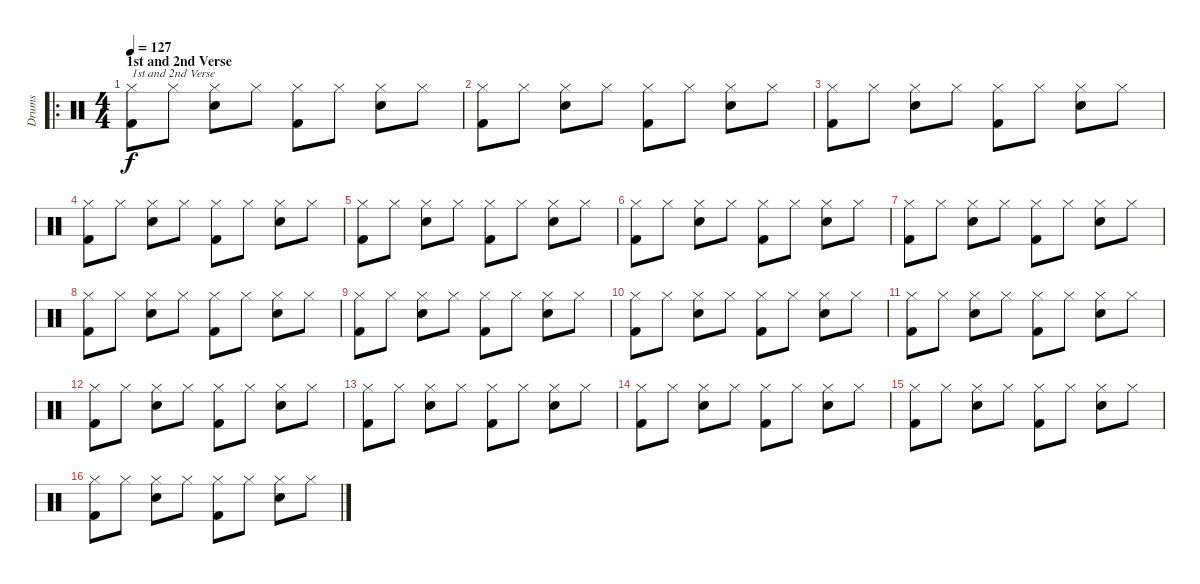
\track ("Drums" "Drums") {instrument percussion}
\staff {score}
\articulation defaults
\ro
\ts (4 4)
\section ("" "1st and 2nd Verse")
\tempo 127
\clef neutral
\ks c
("Hi-Hat (closed)" "Kick (hit) 2").8{txt "1st and 2nd Verse" dy f} "Hi-Hat (closed)".8 ("Hi-Hat (closed)" "Snare (hit) 2").8 "Hi-Hat (closed)".8 ("Hi-Hat (closed)" "Kick (hit) 2").8 "Hi-Hat (closed)".8 ("Hi-Hat (closed)" "Snare (hit) 2").8 "Hi-Hat (closed)".8 |
("Hi-Hat (closed)" "Kick (hit) 2").8 "Hi-Hat (closed)".8 ("Hi-Hat (closed)" "Snare (hit) 2").8 "Hi-Hat (closed)".8 ("Hi-Hat (closed)" "Kick (hit) 2").8 "Hi-Hat (closed)".8 ("Hi-Hat (closed)" "Snare (hit) 2").8 "Hi-Hat (closed)".8 |
("Hi-Hat (closed)" "Kick (hit) 2").8 "Hi-Hat (closed)".8 ("Hi-Hat (closed)" "Snare (hit) 2").8 "Hi-Hat (closed)".8 ("Hi-Hat (closed)" "Kick (hit) 2").8 "Hi-Hat (closed)".8 ("Hi-Hat (closed)" "Snare (hit) 2").8 "Hi-Hat (closed)".8 |
("Hi-Hat (closed)" "Kick (hit) 2").8 "Hi-Hat (closed)".8 ("Hi-Hat (closed)" "Snare (hit) 2").8 "Hi-Hat (closed)".8 ("Hi-Hat (closed)" "Kick (hit) 2").8 "Hi-Hat (closed)".8 ("Hi-Hat (closed)" "Snare (hit) 2").8 "Hi-Hat (closed)".8 |
("Hi-Hat (closed)" "Kick (hit) 2").8 "Hi-Hat (closed)".8 ("Hi-Hat (closed)" "Snare (hit) 2").8 "Hi-Hat (closed)".8 ("Hi-Hat (closed)" "Kick (hit) 2").8 "Hi-Hat (closed)".8 ("Hi-Hat (closed)" "Snare (hit) 2").8 "Hi-Hat (closed)".8 |
("Hi-Hat (closed)" "Kick (hit) 2").8 "Hi-Hat (closed)".8 ("Hi-Hat (closed)" "Snare (hit) 2").8 "Hi-Hat (closed)".8 ("Hi-Hat (closed)" "Kick (hit) 2").8 "Hi-Hat (closed)".8 ("Hi-Hat (closed)" "Snare (hit) 2").8 "Hi-Hat (closed)".8 |
("Hi-Hat (closed)" "Kick (hit) 2").8 "Hi-Hat (closed)".8 ("Hi-Hat (closed)" "Snare (hit) 2").8 "Hi-Hat (closed)".8 ("Hi-Hat (closed)" "Kick (hit) 2").8 "Hi-Hat (closed)".8 ("Hi-Hat (closed)" "Snare (hit) 2").8 "Hi-Hat (closed)".8 |
("Hi-Hat (closed)" "Kick (hit) 2").8 "Hi-Hat (closed)".8 ("Hi-Hat (closed)" "Snare (hit) 2").8 "Hi-Hat (closed)".8 ("Hi-Hat (closed)" "Kick (hit) 2").8 "Hi-Hat (closed)".8 ("Hi-Hat (closed)" "Snare (hit) 2").8 "Hi-Hat (closed)".8 |
("Hi-Hat (closed)" "Kick (hit) 2").8 "Hi-Hat (closed)".8 ("Hi-Hat (closed)" "Snare (hit) 2").8 "Hi-Hat (closed)".8 ("Hi-Hat (closed)" "Kick (hit) 2").8 "Hi-Hat (closed)".8 ("Hi-Hat (closed)" "Snare (hit) 2").8 "Hi-Hat (closed)".8 |
("Hi-Hat (closed)" "Kick (hit) 2").8 "Hi-Hat (closed)".8 ("Hi-Hat (closed)" "Snare (hit) 2").8 "Hi-Hat (closed)".8 ("Hi-Hat (closed)" "Kick (hit) 2").8 "Hi-Hat (closed)".8 ("Hi-Hat (closed)" "Snare (hit) 2").8 "Hi-Hat (closed)".8 |
("Hi-Hat (closed)" "Kick (hit) 2").8 "Hi-Hat (closed)".8 ("Hi-Hat (closed)" "Snare (hit) 2").8 "Hi-Hat (closed)".8 ("Hi-Hat (closed)" "Kick (hit) 2").8 "Hi-Hat (closed)".8 ("Hi-Hat (closed)" "Snare (hit) 2").8 "Hi-Hat (closed)".8 |
("Hi-Hat (closed)" "Kick (hit) 2").8 "Hi-Hat (closed)".8 ("Hi-Hat (closed)" "Snare (hit) 2").8 "Hi-Hat (closed)".8 ("Hi-Hat (closed)" "Kick (hit) 2").8 "Hi-Hat (closed)".8 ("Hi-Hat (closed)" "Snare (hit) 2").8 "Hi-Hat (closed)".8 |
("Hi-Hat (closed)" "Kick (hit) 2").8 "Hi-Hat (closed)".8 ("Hi-Hat (closed)" "Snare (hit) 2").8 "Hi-Hat (closed)".8 ("Hi-Hat (closed)" "Kick (hit) 2").8 "Hi-Hat (closed)".8 ("Hi-Hat (closed)" "Snare (hit) 2").8 "Hi-Hat (closed)".8 |
("Hi-Hat (closed)" "Kick (hit) 2").8 "Hi-Hat (closed)".8 ("Hi-Hat (closed)" "Snare (hit) 2").8 "Hi-Hat (closed)".8 ("Hi-Hat (closed)" "Kick (hit) 2").8 "Hi-Hat (closed)".8 ("Hi-Hat (closed)" "Snare (hit) 2").8 "Hi-Hat (closed)".8 |
("Hi-Hat (closed)" "Kick (hit) 2").8 "Hi-Hat (closed)".8 ("Hi-Hat (closed)" "Snare (hit) 2").8 "Hi-Hat (closed)".8 ("Hi-Hat (closed)" "Kick (hit) 2").8 "Hi-Hat (closed)".8 ("Hi-Hat (closed)" "Snare (hit) 2").8 "Hi-Hat (closed)".8 |
("Hi-Hat (closed)" "Kick (hit) 2").8 "Hi-Hat (closed)".8 ("Hi-Hat (closed)" "Snare (hit) 2").8 "Hi-Hat (closed)".8 ("Hi-Hat (closed)" "Kick (hit) 2").8 "Hi-Hat (closed)".8 ("Hi-Hat (closed)" "Snare (hit) 2").8 "Hi-Hat (closed)".8
